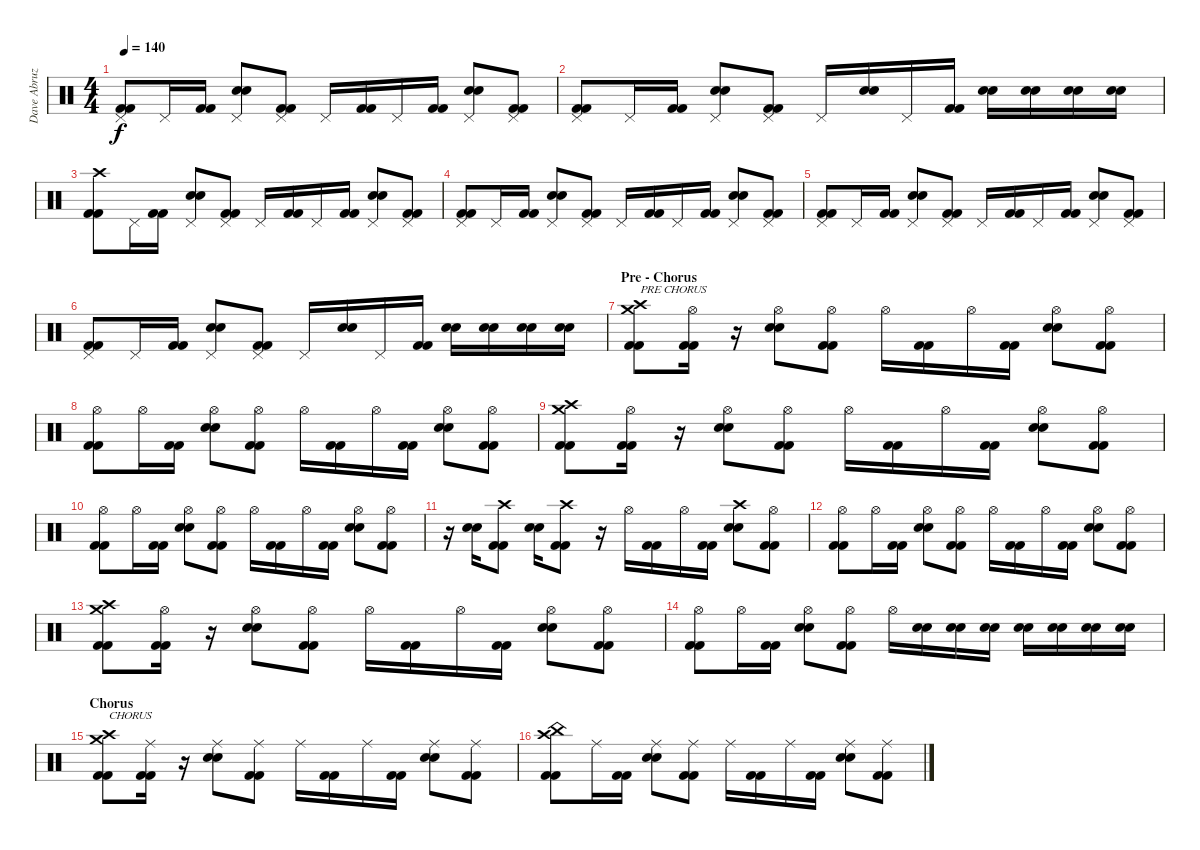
\track ("Dave Abruzzese" "Dave Abruz") {instrument percussion}
\staff {score}
\articulation defaults
\ts (4 4)
\tempo 140
\clef neutral
\ks c
("Kick (hit) 2" "Kick (hit) 2" "Pedal Hi-Hat (hit)").8{dy f} "Pedal Hi-Hat (hit)".16 ("Kick (hit) 2" "Kick (hit) 2").16 ("Electric Snare (hit)" "Electric Snare (hit)" "Pedal Hi-Hat (hit)").8 ("Kick (hit) 2" "Kick (hit) 2" "Pedal Hi-Hat (hit)").8 "Pedal Hi-Hat (hit)".16 ("Kick (hit) 2" "Kick (hit) 2").16 "Pedal Hi-Hat (hit)".16 ("Kick (hit) 2" "Kick (hit) 2").16 ("Electric Snare (hit)" "Electric Snare (hit)" "Pedal Hi-Hat (hit)").8 ("Kick (hit) 2" "Kick (hit) 2" "Pedal Hi-Hat (hit)").8 |
("Kick (hit) 2" "Kick (hit) 2" "Pedal Hi-Hat (hit)").8 "Pedal Hi-Hat (hit)".16 ("Kick (hit) 2" "Kick (hit) 2").16 ("Electric Snare (hit)" "Electric Snare (hit)" "Pedal Hi-Hat (hit)").8 ("Kick (hit) 2" "Kick (hit) 2" "Pedal Hi-Hat (hit)").8 "Pedal Hi-Hat (hit)".16 ("Electric Snare (hit)" "Electric Snare (hit)").16 "Pedal Hi-Hat (hit)".16 ("Kick (hit) 2" "Kick (hit) 2").16 ("Electric Snare (hit)" "Electric Snare (hit)").16 ("Electric Snare (hit)" "Electric Snare (hit)").16 ("Electric Snare (hit)" "Electric Snare (hit)").16 ("Electric Snare (hit)" "Electric Snare (hit)").16 |
("Kick (hit) 2" "Kick (hit) 2" "Crash high (hit)").8 "Pedal Hi-Hat (hit)".16 ("Kick (hit) 2" "Kick (hit) 2").16 ("Electric Snare (hit)" "Electric Snare (hit)" "Pedal Hi-Hat (hit)").8 ("Kick (hit) 2" "Kick (hit) 2" "Pedal Hi-Hat (hit)").8 "Pedal Hi-Hat (hit)".16 ("Kick (hit) 2" "Kick (hit) 2").16 "Pedal Hi-Hat (hit)".16 ("Kick (hit) 2" "Kick (hit) 2").16 ("Electric Snare (hit)" "Electric Snare (hit)" "Pedal Hi-Hat (hit)").8 ("Kick (hit) 2" "Kick (hit) 2" "Pedal Hi-Hat (hit)").8 |
("Kick (hit) 2" "Kick (hit) 2" "Pedal Hi-Hat (hit)").8 "Pedal Hi-Hat (hit)".16 ("Kick (hit) 2" "Kick (hit) 2").16 ("Electric Snare (hit)" "Electric Snare (hit)" "Pedal Hi-Hat (hit)").8 ("Kick (hit) 2" "Kick (hit) 2" "Pedal Hi-Hat (hit)").8 "Pedal Hi-Hat (hit)".16 ("Kick (hit) 2" "Kick (hit) 2").16 "Pedal Hi-Hat (hit)".16 ("Kick (hit) 2" "Kick (hit) 2").16 ("Electric Snare (hit)" "Electric Snare (hit)" "Pedal Hi-Hat (hit)").8 ("Kick (hit) 2" "Kick (hit) 2" "Pedal Hi-Hat (hit)").8 |
("Kick (hit) 2" "Kick (hit) 2" "Pedal Hi-Hat (hit)").8 "Pedal Hi-Hat (hit)".16 ("Kick (hit) 2" "Kick (hit) 2").16 ("Electric Snare (hit)" "Electric Snare (hit)" "Pedal Hi-Hat (hit)").8 ("Kick (hit) 2" "Kick (hit) 2" "Pedal Hi-Hat (hit)").8 "Pedal Hi-Hat (hit)".16 ("Kick (hit) 2" "Kick (hit) 2").16 "Pedal Hi-Hat (hit)".16 ("Kick (hit) 2" "Kick (hit) 2").16 ("Electric Snare (hit)" "Electric Snare (hit)" "Pedal Hi-Hat (hit)").8 ("Kick (hit) 2" "Kick (hit) 2" "Pedal Hi-Hat (hit)").8 |
("Kick (hit) 2" "Kick (hit) 2" "Pedal Hi-Hat (hit)").8 "Pedal Hi-Hat (hit)".16 ("Kick (hit) 2" "Kick (hit) 2").16 ("Electric Snare (hit)" "Electric Snare (hit)" "Pedal Hi-Hat (hit)").8 ("Kick (hit) 2" "Kick (hit) 2" "Pedal Hi-Hat (hit)").8 "Pedal Hi-Hat (hit)".16 ("Electric Snare (hit)" "Electric Snare (hit)").16 "Pedal Hi-Hat (hit)".16 ("Kick (hit) 2" "Kick (hit) 2").16 ("Electric Snare (hit)" "Electric Snare (hit)").16 ("Electric Snare (hit)" "Electric Snare (hit)").16 ("Electric Snare (hit)" "Electric Snare (hit)").16 ("Electric Snare (hit)" "Electric Snare (hit)").16 |
\section ("" "Pre - Chorus")
("Crash medium (hit)" "Kick (hit) 2" "Kick (hit) 2" "Crash high (hit)").8{txt "PRE CHORUS"} ("Kick (hit) 2" "Kick (hit) 2" "Hi-Hat (open)").16 r.16 ("Electric Snare (hit)" "Electric Snare (hit)" "Hi-Hat (open)").8 ("Kick (hit) 2" "Kick (hit) 2" "Hi-Hat (open)").8 "Hi-Hat (open)".16 ("Kick (hit) 2" "Kick (hit) 2").16 "Hi-Hat (open)".16 ("Kick (hit) 2" "Kick (hit) 2").16 ("Electric Snare (hit)" "Electric Snare (hit)" "Hi-Hat (open)").8 ("Kick (hit) 2" "Kick (hit) 2" "Hi-Hat (open)").8 |
("Kick (hit) 2" "Kick (hit) 2" "Hi-Hat (open)").8 "Hi-Hat (open)".16 ("Kick (hit) 2" "Kick (hit) 2").16 ("Electric Snare (hit)" "Electric Snare (hit)" "Hi-Hat (open)").8 ("Kick (hit) 2" "Kick (hit) 2" "Hi-Hat (open)").8 "Hi-Hat (open)".16 ("Kick (hit) 2" "Kick (hit) 2").16 "Hi-Hat (open)".16 ("Kick (hit) 2" "Kick (hit) 2").16 ("Electric Snare (hit)" "Electric Snare (hit)" "Hi-Hat (open)").8 ("Kick (hit) 2" "Kick (hit) 2" "Hi-Hat (open)").8 |
("Crash medium (hit)" "Kick (hit) 2" "Kick (hit) 2" "Crash high (hit)").8 ("Kick (hit) 2" "Kick (hit) 2" "Hi-Hat (open)").16 r.16 ("Electric Snare (hit)" "Electric Snare (hit)" "Hi-Hat (open)").8 ("Kick (hit) 2" "Kick (hit) 2" "Hi-Hat (open)").8 "Hi-Hat (open)".16 ("Kick (hit) 2" "Kick (hit) 2").16 "Hi-Hat (open)".16 ("Kick (hit) 2" "Kick (hit) 2").16 ("Electric Snare (hit)" "Electric Snare (hit)" "Hi-Hat (open)").8 ("Kick (hit) 2" "Kick (hit) 2" "Hi-Hat (open)").8 |
("Kick (hit) 2" "Kick (hit) 2" "Hi-Hat (open)").8 "Hi-Hat (open)".16 ("Kick (hit) 2" "Kick (hit) 2").16 ("Electric Snare (hit)" "Electric Snare (hit)" "Hi-Hat (open)").8 ("Kick (hit) 2" "Kick (hit) 2" "Hi-Hat (open)").8 "Hi-Hat (open)".16 ("Kick (hit) 2" "Kick (hit) 2").16 "Hi-Hat (open)".16 ("Kick (hit) 2" "Kick (hit) 2").16 ("Electric Snare (hit)" "Electric Snare (hit)" "Hi-Hat (open)").8 ("Kick (hit) 2" "Kick (hit) 2" "Hi-Hat (open)").8 |
r.16 ("Electric Snare (hit)" "Electric Snare (hit)").16 ("Kick (hit) 2" "Kick (hit) 2" "Crash high (hit)").8 ("Electric Snare (hit)" "Electric Snare (hit)").16 ("Kick (hit) 2" "Kick (hit) 2" "Crash high (hit)").8 r.16 "Hi-Hat (open)".16 ("Kick (hit) 2" "Kick (hit) 2").16 "Hi-Hat (open)".16 ("Kick (hit) 2" "Kick (hit) 2").16 ("Electric Snare (hit)" "Electric Snare (hit)" "Crash high (hit)").8 ("Kick (hit) 2" "Kick (hit) 2" "Hi-Hat (open)").8 |
("Kick (hit) 2" "Kick (hit) 2" "Hi-Hat (open)").8 "Hi-Hat (open)".16 ("Kick (hit) 2" "Kick (hit) 2").16 ("Electric Snare (hit)" "Electric Snare (hit)" "Hi-Hat (open)").8 ("Kick (hit) 2" "Kick (hit) 2" "Hi-Hat (open)").8 "Hi-Hat (open)".16 ("Kick (hit) 2" "Kick (hit) 2").16 "Hi-Hat (open)".16 ("Kick (hit) 2" "Kick (hit) 2").16 ("Electric Snare (hit)" "Electric Snare (hit)" "Hi-Hat (open)").8 ("Kick (hit) 2" "Kick (hit) 2" "Hi-Hat (open)").8 |
("Crash medium (hit)" "Kick (hit) 2" "Kick (hit) 2" "Crash high (hit)").8 ("Kick (hit) 2" "Kick (hit) 2" "Hi-Hat (open)").16 r.16 ("Electric Snare (hit)" "Electric Snare (hit)" "Hi-Hat (open)").8 ("Kick (hit) 2" "Kick (hit) 2" "Hi-Hat (open)").8 "Hi-Hat (open)".16 ("Kick (hit) 2" "Kick (hit) 2").16 "Hi-Hat (open)".16 ("Kick (hit) 2" "Kick (hit) 2").16 ("Electric Snare (hit)" "Electric Snare (hit)" "Hi-Hat (open)").8 ("Kick (hit) 2" "Kick (hit) 2" "Hi-Hat (open)").8 |
("Kick (hit) 2" "Kick (hit) 2" "Hi-Hat (open)").8 "Hi-Hat (open)".16 ("Kick (hit) 2" "Kick (hit) 2").16 ("Electric Snare (hit)" "Electric Snare (hit)" "Hi-Hat (open)").8 ("Kick (hit) 2" "Kick (hit) 2" "Hi-Hat (open)").8 "Hi-Hat (open)".16 ("Electric Snare (hit)" "Electric Snare (hit)").16 ("Electric Snare (hit)" "Electric Snare (hit)").16 ("Electric Snare (hit)" "Electric Snare (hit)").16 ("Electric Snare (hit)" "Electric Snare (hit)").16 ("Electric Snare (hit)" "Electric Snare (hit)").16 ("Electric Snare (hit)" "Electric Snare (hit)").16 ("Electric Snare (hit)" "Electric Snare (hit)").16 |
\section ("" "Chorus ")
("Crash medium (hit)" "Kick (hit) 2" "Kick (hit) 2" "Crash high (hit)").8{txt "CHORUS"} ("Kick (hit) 2" "Kick (hit) 2" "Ride (middle)").16 r.16 ("Electric Snare (hit)" "Electric Snare (hit)" "Ride (middle)").8 ("Kick (hit) 2" "Kick (hit) 2" "Ride (middle)").8 "Ride (middle)".16 ("Kick (hit) 2" "Kick (hit) 2").16 "Ride (middle)".16 ("Kick (hit) 2" "Kick (hit) 2").16 ("Electric Snare (hit)" "Electric Snare (hit)" "Ride (middle)").8 ("Kick (hit) 2" "Kick (hit) 2" "Ride (middle)").8 |
("China (hit)" "Kick (hit) 2" "Kick (hit) 2" "Crash high (hit)").8 "Ride (middle)".16 ("Kick (hit) 2" "Kick (hit) 2").16 ("Electric Snare (hit)" "Electric Snare (hit)" "Ride (middle)").8 ("Kick (hit) 2" "Kick (hit) 2" "Ride (middle)").8 "Ride (middle)".16 ("Kick (hit) 2" "Kick (hit) 2").16 "Ride (middle)".16 ("Kick (hit) 2" "Kick (hit) 2").16 ("Electric Snare (hit)" "Electric Snare (hit)" "Ride (middle)").8 ("Kick (hit) 2" "Kick (hit) 2" "Ride (middle)").8
